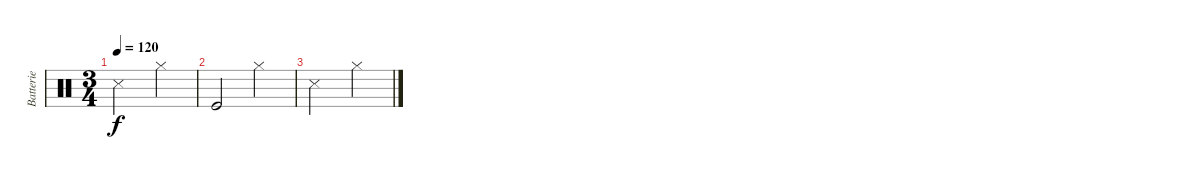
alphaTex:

\track ("Batterie" "Batterie") {instrument percussion}
\staff {score}
\articulation defaults
\ts (3 4)
\tempo 120
\clef neutral
\ks c "Snare (side stick) 3".2{dy f volume 5} "Hi-Hat (closed)".4
|
"Kick (hit)".2{volume 3} "Hi-Hat (closed)".4 |
"Snare (side stick) 3".2 "Hi-Hat (closed)".4
